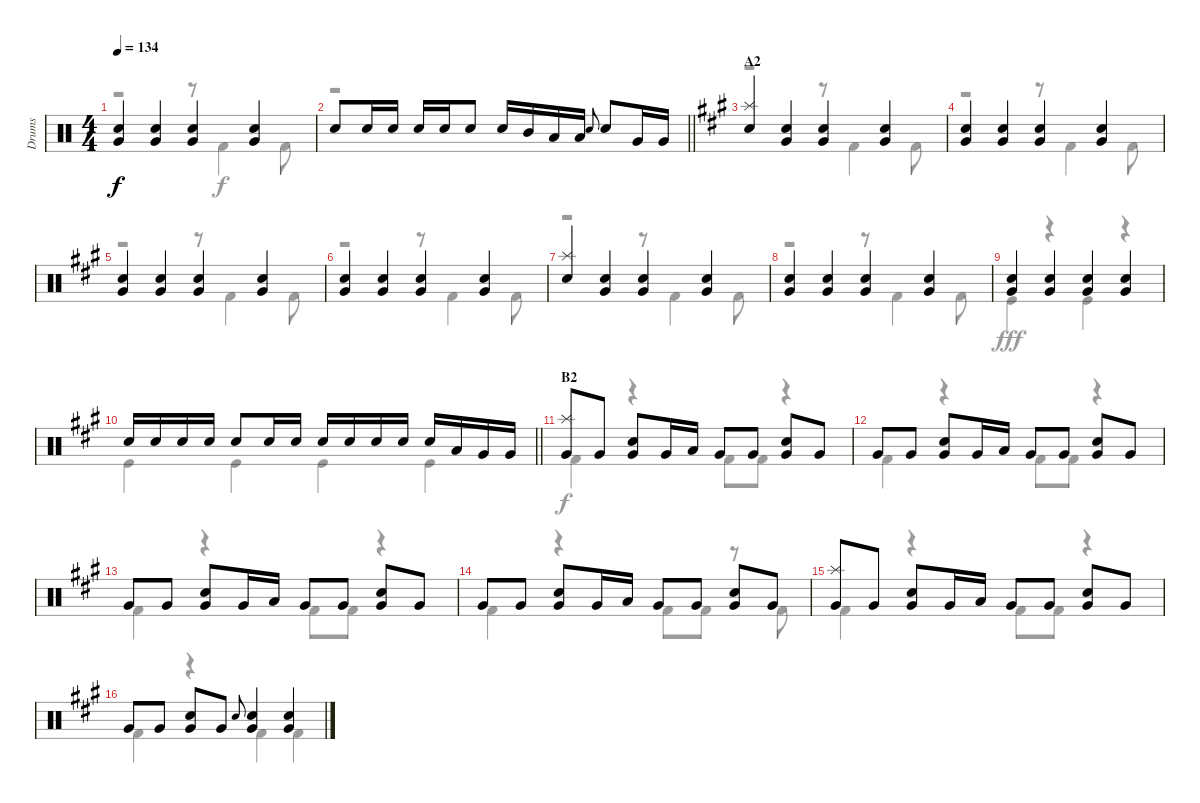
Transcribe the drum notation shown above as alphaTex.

\track ("Drums" "Drums") {instrument percussion}
\staff {score}
\articulation defaults
\voice
\ts (4 4)
\tempo 134
\clef neutral
\ks c
("Snare (hit) 2" "Very Low Tom (hit)").4{dy f} ("Snare (hit) 2" "Very Low Tom (hit)").4 ("Snare (hit) 2" "Very Low Tom (hit)").4 ("Snare (hit) 2" "Very Low Tom (hit)").4 |
\barLineRight lightlight "Snare (hit) 2".8 "Snare (hit) 2".16 "Snare (hit) 2".16 "Snare (hit) 2".16 "Snare (hit) 2".16 "Snare (hit) 2".8 "Snare (hit) 2".16 "Mid Tom (hit)".16 "Low Tom (hit)".16 "Low Tom (hit)".16 "Snare (hit) 2".8{gr onbeat} "Snare (hit) 2".8 "Very Low Tom (hit)".16 "Very Low Tom (hit)".16
|
\section ("" "A2")
\ks a
("Splash (hit)" "Snare (hit) 2").4 ("Snare (hit) 2" "Very Low Tom (hit)").4 ("Snare (hit) 2" "Very Low Tom (hit)").4 ("Snare (hit) 2" "Very Low Tom (hit)").4 |
("Snare (hit) 2" "Very Low Tom (hit)").4 ("Snare (hit) 2" "Very Low Tom (hit)").4 ("Snare (hit) 2" "Very Low Tom (hit)").4 ("Snare (hit) 2" "Very Low Tom (hit)").4 |
("Snare (hit) 2" "Very Low Tom (hit)").4 ("Snare (hit) 2" "Very Low Tom (hit)").4 ("Snare (hit) 2" "Very Low Tom (hit)").4 ("Snare (hit) 2" "Very Low Tom (hit)").4 |
("Snare (hit) 2" "Very Low Tom (hit)").4 ("Snare (hit) 2" "Very Low Tom (hit)").4 ("Snare (hit) 2" "Very Low Tom (hit)").4 ("Snare (hit) 2" "Very Low Tom (hit)").4 |
("Splash (hit)" "Snare (hit) 2").4 ("Snare (hit) 2" "Very Low Tom (hit)").4 ("Snare (hit) 2" "Very Low Tom (hit)").4 ("Snare (hit) 2" "Very Low Tom (hit)").4 |
("Snare (hit) 2" "Very Low Tom (hit)").4 ("Snare (hit) 2" "Very Low Tom (hit)").4 ("Snare (hit) 2" "Very Low Tom (hit)").4 ("Snare (hit) 2" "Very Low Tom (hit)").4 |
("Snare (hit) 2" "Very Low Tom (hit)").4 ("Snare (hit) 2" "Very Low Tom (hit)").4 ("Snare (hit) 2" "Very Low Tom (hit)").4 ("Snare (hit) 2" "Very Low Tom (hit)").4 |
\barLineRight lightlight "Snare (hit) 2".16 "Snare (hit) 2".16 "Snare (hit) 2".16 "Snare (hit) 2".16 "Snare (hit) 2".8 "Snare (hit) 2".16 "Snare (hit) 2".16 "Snare (hit) 2".16 "Snare (hit) 2".16 "Snare (hit) 2".16 "Snare (hit) 2".16 "Snare (hit) 2".16 "Low Tom (hit)".16 "Very Low Tom (hit)".16 "Very Low Tom (hit)".16
|
\section ("" "B2")
("Splash (hit)" "Very Low Tom (hit)").8 "Very Low Tom (hit)".8 ("Very Low Tom (hit)" "Snare (hit) 2").8 "Very Low Tom (hit)".16 "Low Tom (hit)".16 "Very Low Tom (hit)".8 "Very Low Tom (hit)".8 ("Very Low Tom (hit)" "Snare (hit) 2").8 "Very Low Tom (hit)".8 |
"Very Low Tom (hit)".8 "Very Low Tom (hit)".8 ("Very Low Tom (hit)" "Snare (hit) 2").8 "Very Low Tom (hit)".16 "Low Tom (hit)".16 "Very Low Tom (hit)".8 "Very Low Tom (hit)".8 ("Very Low Tom (hit)" "Snare (hit) 2").8 "Very Low Tom (hit)".8 |
"Very Low Tom (hit)".8 "Very Low Tom (hit)".8 ("Very Low Tom (hit)" "Snare (hit) 2").8 "Very Low Tom (hit)".16 "Low Tom (hit)".16 "Very Low Tom (hit)".8 "Very Low Tom (hit)".8 ("Very Low Tom (hit)" "Snare (hit) 2").8 "Very Low Tom (hit)".8 |
"Very Low Tom (hit)".8 "Very Low Tom (hit)".8 ("Very Low Tom (hit)" "Snare (hit) 2").8 "Very Low Tom (hit)".16 "Low Tom (hit)".16 "Very Low Tom (hit)".8 "Very Low Tom (hit)".8 ("Very Low Tom (hit)" "Snare (hit) 2").8 "Very Low Tom (hit)".8 |
("Splash (hit)" "Very Low Tom (hit)").8 "Very Low Tom (hit)".8 ("Very Low Tom (hit)" "Snare (hit) 2").8 "Very Low Tom (hit)".16 "Low Tom (hit)".16 "Very Low Tom (hit)".8 "Very Low Tom (hit)".8 ("Very Low Tom (hit)" "Snare (hit) 2").8 "Very Low Tom (hit)".8 |
"Very Low Tom (hit)".8 "Very Low Tom (hit)".8 ("Very Low Tom (hit)" "Snare (hit) 2").8 "Very Low Tom (hit)".8 "Snare (hit) 2".8{gr onbeat} ("Very Low Tom (hit)" "Snare (hit) 2").4 ("Very Low Tom (hit)" "Snare (hit) 2").4
\voice
\clef neutral
\ottava regular
\simile none
\ks c
r.2{dy f} r.8 "Kick (hit) 2".4 "Kick (hit) 2".8 |
\barLineRight lightlight
r.1 |
\ks a
r.2 r.8 "Kick (hit) 2".4 "Kick (hit) 2".8 |
r.2 r.8 "Kick (hit) 2".4 "Kick (hit) 2".8 |
r.2 r.8 "Kick (hit) 2".4 "Kick (hit) 2".8 |
r.2 r.8 "Kick (hit) 2".4 "Kick (hit) 2".8 |
r.2 r.8 "Kick (hit) 2".4 "Kick (hit) 2".8 |
r.2 r.8 "Kick (hit) 2".4 "Kick (hit) 2".8 |
"Kick (hit)".4{dy fff} r.4 "Kick (hit)".4 r.4 |
\barLineRight lightlight "Kick (hit)".4 "Kick (hit)".4 "Kick (hit)".4 "Kick (hit)".4
|
"Kick (hit) 2".4{dy f} r.4 "Kick (hit) 2".8 "Kick (hit) 2".8 r.4 |
"Kick (hit) 2".4 r.4 "Kick (hit) 2".8 "Kick (hit) 2".8 r.4 |
"Kick (hit) 2".4 r.4 "Kick (hit) 2".8 "Kick (hit) 2".8 r.4 |
"Kick (hit) 2".4 r.4 "Kick (hit) 2".8 "Kick (hit) 2".8 r.8 "Kick (hit) 2".8 |
"Kick (hit) 2".4 r.4 "Kick (hit) 2".8 "Kick (hit) 2".8 r.4 |
"Kick (hit) 2".4 r.4 "Kick (hit) 2".4 "Kick (hit) 2".4
